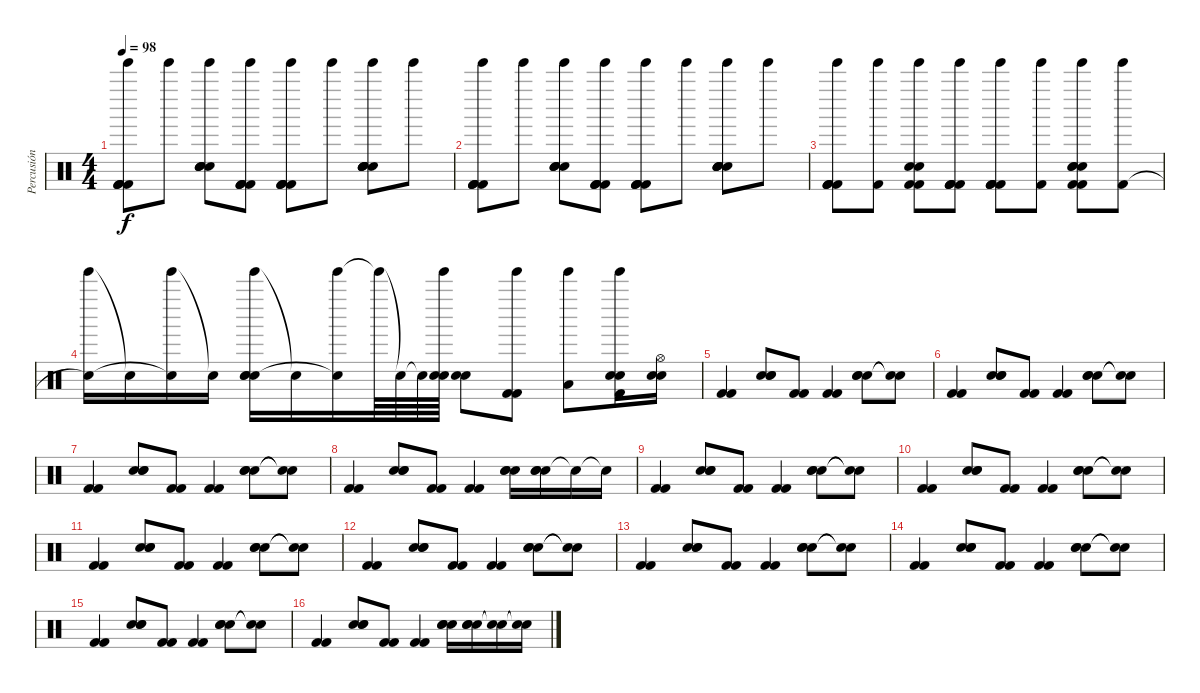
\track ("Percusión" "Percusión") {instrument percussion}
\staff {score}
\articulation defaults
\ts (4 4)
\tempo 98
\clef neutral
\ks c
("Tinkle Bell (hit)" "Kick (hit) 2" "Kick (hit) 2" "Kick (hit) 2" "Kick (hit) 2").8{dy f} "Tinkle Bell (hit)".8 ("Tinkle Bell (hit)" "Electric Snare (hit)" "Electric Snare (hit)" "Electric Snare (hit)" "Electric Snare (hit)").8 ("Tinkle Bell (hit)" "Kick (hit) 2" "Kick (hit) 2" "Kick (hit) 2" "Kick (hit) 2").8 ("Tinkle Bell (hit)" "Kick (hit) 2" "Kick (hit) 2" "Kick (hit) 2" "Kick (hit) 2").8 "Tinkle Bell (hit)".8 ("Tinkle Bell (hit)" "Electric Snare (hit)" "Electric Snare (hit)" "Electric Snare (hit)" "Electric Snare (hit)" "Hand Clap (hit)").8 "Tinkle Bell (hit)".8 |
("Tinkle Bell (hit)" "Kick (hit) 2" "Kick (hit) 2" "Kick (hit) 2" "Kick (hit) 2").8 "Tinkle Bell (hit)".8 ("Tinkle Bell (hit)" "Electric Snare (hit)" "Electric Snare (hit)" "Electric Snare (hit)" "Electric Snare (hit)").8 ("Tinkle Bell (hit)" "Kick (hit) 2" "Kick (hit) 2" "Kick (hit) 2" "Kick (hit) 2").8 ("Tinkle Bell (hit)" "Kick (hit) 2" "Kick (hit) 2" "Kick (hit) 2" "Kick (hit) 2").8 "Tinkle Bell (hit)".8 ("Tinkle Bell (hit)" "Electric Snare (hit)" "Electric Snare (hit)" "Electric Snare (hit)" "Electric Snare (hit)" "Hand Clap (hit)").8 "Tinkle Bell (hit)".8 |
("Tinkle Bell (hit)" "Kick (hit) 2" "Kick (hit) 2" "Kick (hit) 2" "Kick (hit) 2").8 ("Tinkle Bell (hit)" "Kick (hit) 2").8 ("Tinkle Bell (hit)" "Kick (hit) 2" "Kick (hit) 2" "Electric Snare (hit)" "Electric Snare (hit)").8 ("Tinkle Bell (hit)" "Kick (hit) 2" "Kick (hit) 2" "Kick (hit) 2" "Kick (hit) 2").8 ("Tinkle Bell (hit)" "Kick (hit) 2" "Kick (hit) 2" "Kick (hit) 2" "Kick (hit) 2").8 ("Tinkle Bell (hit)" "Kick (hit) 2").8 ("Tinkle Bell (hit)" "Kick (hit) 2" "Kick (hit) 2" "Electric Snare (hit)" "Electric Snare (hit)" "Hand Clap (hit)").8 ("Tinkle Bell (hit)" "Kick (hit) 2").8 |
("Tinkle Bell (hit)" "Snare (hit)"{t}).16 "Snare (hit)"{t}.16 ("Tinkle Bell (hit)" "Snare (hit)"{t}).16 "Electric Snare (hit)"{t}.16 ("Tinkle Bell (hit)" "Electric Snare (hit)" "Electric Snare (hit)" "Electric Snare (hit)").16 "Snare (hit)"{t}.16 ("Tinkle Bell (hit)" "Snare (hit)"{t}).16 "Tinkle Bell (hit)"{t}.64 "Snare (hit)"{t}.64 "Snare (hit)"{t}.64 ("Tinkle Bell (hit)" "Electric Snare (hit)" "Electric Snare (hit)").64 ("Electric Snare (hit)" "Electric Snare (hit)").8 ("Tinkle Bell (hit)" "Kick (hit) 2" "Kick (hit) 2").8 ("Tinkle Bell (hit)" "Low Floor Tom (hit)").8 ("Tinkle Bell (hit)" "Kick (hit) 2" "Electric Snare (hit)" "Electric Snare (hit)").16 ("Electric Snare (hit)" "Electric Snare (hit)" "Hi-Hat (open)").16 |
("Kick (hit) 2" "Kick (hit) 2").4 ("Electric Snare (hit)" "Electric Snare (hit)" "Electric Snare (hit)").8 ("Kick (hit) 2" "Kick (hit) 2").8 ("Kick (hit) 2" "Kick (hit) 2").4 ("Electric Snare (hit)" "Electric Snare (hit)" "Electric Snare (hit)").8 ("Snare (hit)"{t} "Snare (hit)"{t}).8 |
("Kick (hit) 2" "Kick (hit) 2").4 ("Electric Snare (hit)" "Electric Snare (hit)" "Electric Snare (hit)").8 ("Kick (hit) 2" "Kick (hit) 2").8 ("Kick (hit) 2" "Kick (hit) 2").4 ("Electric Snare (hit)" "Electric Snare (hit)" "Electric Snare (hit)").8 ("Snare (hit)"{t} "Snare (hit)"{t}).8 |
("Kick (hit) 2" "Kick (hit) 2").4 ("Electric Snare (hit)" "Electric Snare (hit)" "Electric Snare (hit)").8 ("Kick (hit) 2" "Kick (hit) 2").8 ("Kick (hit) 2" "Kick (hit) 2").4 ("Electric Snare (hit)" "Electric Snare (hit)" "Electric Snare (hit)").8 ("Snare (hit)"{t} "Snare (hit)"{t}).8 |
("Kick (hit) 2" "Kick (hit) 2").4 ("Electric Snare (hit)" "Electric Snare (hit)" "Electric Snare (hit)").8 ("Kick (hit) 2" "Kick (hit) 2").8 ("Kick (hit) 2" "Kick (hit) 2").4 ("Electric Snare (hit)" "Electric Snare (hit)" "Electric Snare (hit)").16 ("Electric Snare (hit)" "Electric Snare (hit)" "Electric Snare (hit)").16 "Snare (hit)"{t}.16 "Snare (hit)"{t}.16 |
("Kick (hit) 2" "Kick (hit) 2").4 ("Electric Snare (hit)" "Electric Snare (hit)" "Electric Snare (hit)").8 ("Kick (hit) 2" "Kick (hit) 2").8 ("Kick (hit) 2" "Kick (hit) 2").4 ("Electric Snare (hit)" "Electric Snare (hit)" "Electric Snare (hit)").8 ("Snare (hit)"{t} "Snare (hit)"{t}).8 |
("Kick (hit) 2" "Kick (hit) 2").4 ("Electric Snare (hit)" "Electric Snare (hit)" "Electric Snare (hit)").8 ("Kick (hit) 2" "Kick (hit) 2").8 ("Kick (hit) 2" "Kick (hit) 2").4 ("Electric Snare (hit)" "Electric Snare (hit)" "Electric Snare (hit)").8 ("Snare (hit)"{t} "Snare (hit)"{t}).8 |
("Kick (hit) 2" "Kick (hit) 2").4 ("Electric Snare (hit)" "Electric Snare (hit)" "Electric Snare (hit)").8 ("Kick (hit) 2" "Kick (hit) 2").8 ("Kick (hit) 2" "Kick (hit) 2").4 ("Electric Snare (hit)" "Electric Snare (hit)" "Electric Snare (hit)").8 ("Snare (hit)"{t} "Snare (hit)"{t}).8 |
("Kick (hit) 2" "Kick (hit) 2").4 ("Electric Snare (hit)" "Electric Snare (hit)" "Electric Snare (hit)").8 ("Kick (hit) 2" "Kick (hit) 2").8 ("Kick (hit) 2" "Kick (hit) 2").4 ("Electric Snare (hit)" "Electric Snare (hit)" "Electric Snare (hit)").8 ("Electric Snare (hit)"{t} "Electric Snare (hit)"{t}).8 |
("Kick (hit) 2" "Kick (hit) 2").4 ("Electric Snare (hit)" "Electric Snare (hit)" "Electric Snare (hit)").8 ("Kick (hit) 2" "Kick (hit) 2").8 ("Kick (hit) 2" "Kick (hit) 2").4 ("Electric Snare (hit)" "Electric Snare (hit)" "Electric Snare (hit)").8 ("Snare (hit)"{t} "Snare (hit)"{t}).8 |
("Kick (hit) 2" "Kick (hit) 2").4 ("Electric Snare (hit)" "Electric Snare (hit)" "Electric Snare (hit)").8 ("Kick (hit) 2" "Kick (hit) 2").8 ("Kick (hit) 2" "Kick (hit) 2").4 ("Electric Snare (hit)" "Electric Snare (hit)" "Electric Snare (hit)").8 ("Snare (hit)"{t} "Snare (hit)"{t}).8 |
("Kick (hit) 2" "Kick (hit) 2").4 ("Electric Snare (hit)" "Electric Snare (hit)" "Electric Snare (hit)").8 ("Kick (hit) 2" "Kick (hit) 2").8 ("Kick (hit) 2" "Kick (hit) 2").4 ("Electric Snare (hit)" "Electric Snare (hit)" "Electric Snare (hit)").8 ("Snare (hit)"{t} "Snare (hit)"{t}).8 |
("Kick (hit) 2" "Kick (hit) 2").4 ("Electric Snare (hit)" "Electric Snare (hit)" "Electric Snare (hit)").8 ("Kick (hit) 2" "Kick (hit) 2").8 ("Kick (hit) 2" "Kick (hit) 2").4 ("Electric Snare (hit)" "Electric Snare (hit)" "Electric Snare (hit)").16 ("Electric Snare (hit)" "Electric Snare (hit)" "Electric Snare (hit)").16 ("Snare (hit)"{t} "Snare (hit)"{t}).16 ("Snare (hit)"{t} "Snare (hit)"{t}).16
